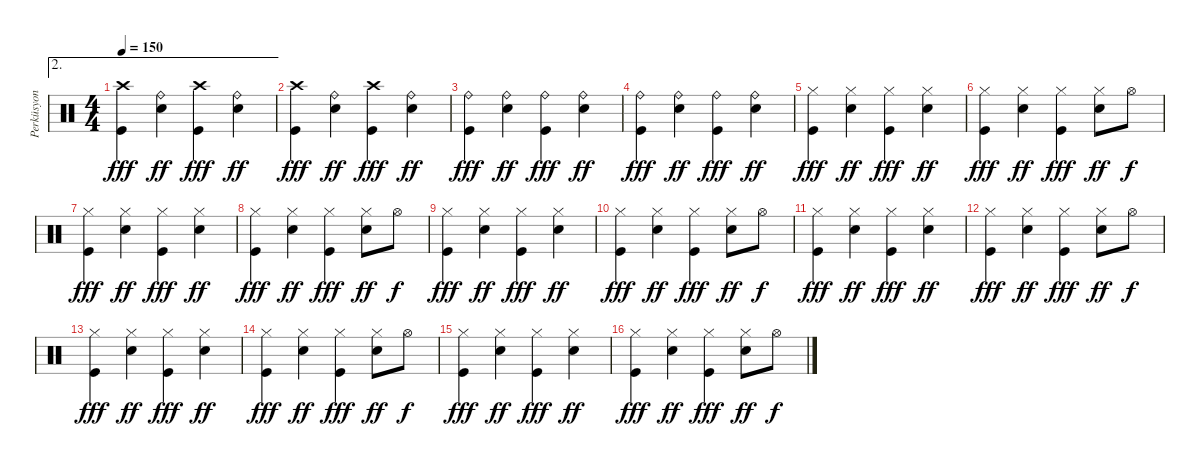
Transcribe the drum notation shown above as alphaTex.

\track ("Perküsyon" "Perküsyon") {instrument percussion}
\staff {score}
\articulation defaults
\ae 2
\ts (4 4)
\tempo 150
\clef neutral
\ks c
("Crash high (hit)" "Kick (hit)").4{dy fff} ("Ride (bell)" "Snare (hit) 2").4{dy ff} ("Crash high (hit)" "Kick (hit)").4{dy fff} ("Ride (bell)" "Snare (hit) 2").4{dy ff} |
("Crash high (hit)" "Kick (hit)").4{dy fff} ("Ride (bell)" "Snare (hit) 2").4{dy ff} ("Crash high (hit)" "Kick (hit)").4{dy fff} ("Ride (bell)" "Snare (hit) 2").4{dy ff} |
("Ride (bell)" "Kick (hit)").4{dy fff} ("Ride (bell)" "Snare (hit) 2").4{dy ff} ("Ride (bell)" "Kick (hit)").4{dy fff} ("Ride (bell)" "Snare (hit) 2").4{dy ff} |
("Ride (bell)" "Kick (hit)").4{dy fff} ("Ride (bell)" "Snare (hit) 2").4{dy ff} ("Ride (bell)" "Kick (hit)").4{dy fff} ("Ride (bell)" "Snare (hit) 2").4{dy ff} |
("Hi-Hat (closed)" "Kick (hit)").4{dy fff} ("Hi-Hat (closed)" "Snare (hit) 2").4{dy ff} ("Hi-Hat (closed)" "Kick (hit)").4{dy fff} ("Hi-Hat (closed)" "Snare (hit) 2").4{dy ff} |
("Hi-Hat (closed)" "Kick (hit)").4{dy fff} ("Hi-Hat (closed)" "Snare (hit) 2").4{dy ff} ("Hi-Hat (closed)" "Kick (hit)").4{dy fff} ("Hi-Hat (closed)" "Snare (hit) 2").8{dy ff} "Hi-Hat (open)".8{dy f} |
("Hi-Hat (closed)" "Kick (hit)").4{dy fff} ("Hi-Hat (closed)" "Snare (hit) 2").4{dy ff} ("Hi-Hat (closed)" "Kick (hit)").4{dy fff} ("Hi-Hat (closed)" "Snare (hit) 2").4{dy ff} |
("Hi-Hat (closed)" "Kick (hit)").4{dy fff} ("Hi-Hat (closed)" "Snare (hit) 2").4{dy ff} ("Hi-Hat (closed)" "Kick (hit)").4{dy fff} ("Hi-Hat (closed)" "Snare (hit) 2").8{dy ff} "Hi-Hat (open)".8{dy f} |
("Hi-Hat (closed)" "Kick (hit)").4{dy fff} ("Hi-Hat (closed)" "Snare (hit) 2").4{dy ff} ("Hi-Hat (closed)" "Kick (hit)").4{dy fff} ("Hi-Hat (closed)" "Snare (hit) 2").4{dy ff} |
("Hi-Hat (closed)" "Kick (hit)").4{dy fff} ("Hi-Hat (closed)" "Snare (hit) 2").4{dy ff} ("Hi-Hat (closed)" "Kick (hit)").4{dy fff} ("Hi-Hat (closed)" "Snare (hit) 2").8{dy ff} "Hi-Hat (open)".8{dy f} |
("Hi-Hat (closed)" "Kick (hit)").4{dy fff} ("Hi-Hat (closed)" "Snare (hit) 2").4{dy ff} ("Hi-Hat (closed)" "Kick (hit)").4{dy fff} ("Hi-Hat (closed)" "Snare (hit) 2").4{dy ff} |
("Hi-Hat (closed)" "Kick (hit)").4{dy fff} ("Hi-Hat (closed)" "Snare (hit) 2").4{dy ff} ("Hi-Hat (closed)" "Kick (hit)").4{dy fff} ("Hi-Hat (closed)" "Snare (hit) 2").8{dy ff} "Hi-Hat (open)".8{dy f} |
("Hi-Hat (closed)" "Kick (hit)").4{dy fff} ("Hi-Hat (closed)" "Snare (hit) 2").4{dy ff} ("Hi-Hat (closed)" "Kick (hit)").4{dy fff} ("Hi-Hat (closed)" "Snare (hit) 2").4{dy ff} |
("Hi-Hat (closed)" "Kick (hit)").4{dy fff} ("Hi-Hat (closed)" "Snare (hit) 2").4{dy ff} ("Hi-Hat (closed)" "Kick (hit)").4{dy fff} ("Hi-Hat (closed)" "Snare (hit) 2").8{dy ff} "Hi-Hat (open)".8{dy f} |
("Hi-Hat (closed)" "Kick (hit)").4{dy fff} ("Hi-Hat (closed)" "Snare (hit) 2").4{dy ff} ("Hi-Hat (closed)" "Kick (hit)").4{dy fff} ("Hi-Hat (closed)" "Snare (hit) 2").4{dy ff} |
("Hi-Hat (closed)" "Kick (hit)").4{dy fff} ("Hi-Hat (closed)" "Snare (hit) 2").4{dy ff} ("Hi-Hat (closed)" "Kick (hit)").4{dy fff} ("Hi-Hat (closed)" "Snare (hit) 2").8{dy ff} "Hi-Hat (open)".8{dy f}
